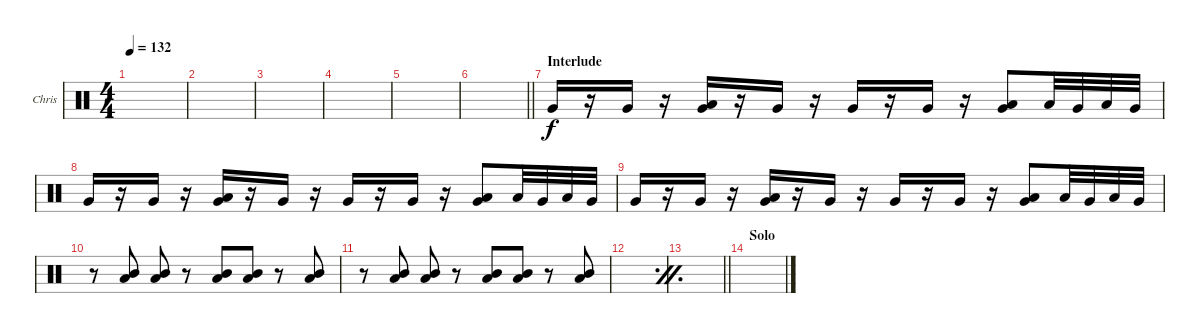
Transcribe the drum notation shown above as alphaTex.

\bracketExtendMode groupsimilarinstruments
\firstSystemTrackNameOrientation horizontal
\otherSystemsTrackNameOrientation horizontal
\track ("Chris Fehn" "Chris") {instrument percussion}
\staff {score}
\articulation defaults
\ts (4 4)
\tempo 132
\clef neutral
\ks c
|
|
|
|
|
\barLineRight lightlight
|
\section ("" "Interlude")
"Very Low Tom (hit)".16 r.16 "Very Low Tom (hit)".16 r.16 ("Very Low Tom (hit)" "Low Tom (hit)").16 r.16 "Very Low Tom (hit)".16 r.16 "Very Low Tom (hit)".16 r.16 "Very Low Tom (hit)".16 r.16 ("Very Low Tom (hit)" "Low Tom (hit)").8 "Low Tom (hit)".32 "Very Low Tom (hit)".32 "Low Tom (hit)".32 "Very Low Tom (hit)".32 |
"Very Low Tom (hit)".16 r.16 "Very Low Tom (hit)".16 r.16 ("Very Low Tom (hit)" "Low Tom (hit)").16 r.16 "Very Low Tom (hit)".16 r.16 "Very Low Tom (hit)".16 r.16 "Very Low Tom (hit)".16 r.16 ("Very Low Tom (hit)" "Low Tom (hit)").8 "Low Tom (hit)".32 "Very Low Tom (hit)".32 "Low Tom (hit)".32 "Very Low Tom (hit)".32 |
"Very Low Tom (hit)".16 r.16 "Very Low Tom (hit)".16 r.16 ("Very Low Tom (hit)" "Low Tom (hit)").16 r.16 "Very Low Tom (hit)".16 r.16 "Very Low Tom (hit)".16 r.16 "Very Low Tom (hit)".16 r.16 ("Very Low Tom (hit)" "Low Tom (hit)").8 "Low Tom (hit)".32 "Very Low Tom (hit)".32 "Low Tom (hit)".32 "Very Low Tom (hit)".32 |
r.8 ("Mid Tom (hit)" "Low Tom (hit)").8 ("Mid Tom (hit)" "Low Tom (hit)").8 r.8 ("Mid Tom (hit)" "Low Tom (hit)").8 ("Mid Tom (hit)" "Low Tom (hit)").8 r.8 ("Mid Tom (hit)" "Low Tom (hit)").8 |
r.8 ("Mid Tom (hit)" "Low Tom (hit)").8 ("Mid Tom (hit)" "Low Tom (hit)").8 r.8 ("Mid Tom (hit)" "Low Tom (hit)").8 ("Mid Tom (hit)" "Low Tom (hit)").8 r.8 ("Mid Tom (hit)" "Low Tom (hit)").8 |
\simile firstofdouble
|
\simile secondofdouble
\barLineRight lightlight
|
\section ("" "Solo")
\simile none
